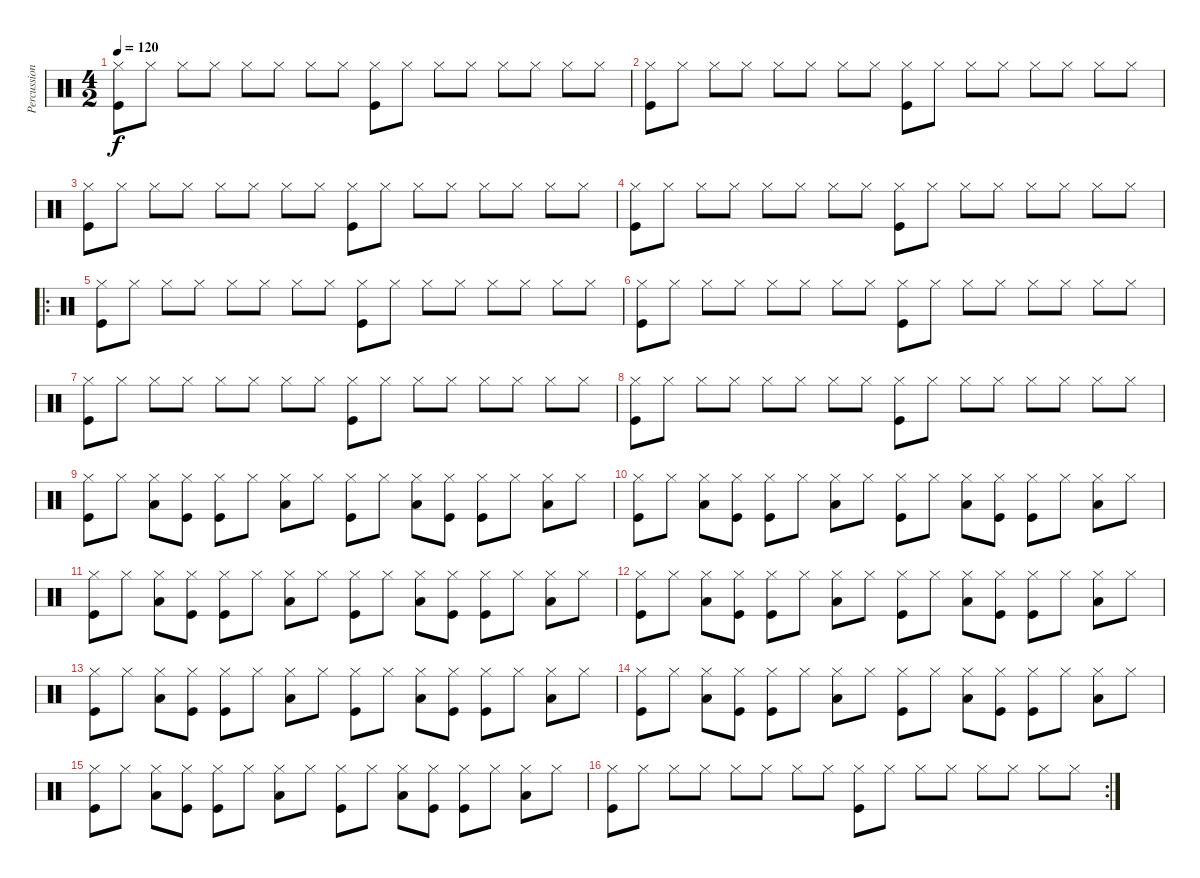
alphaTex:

\track ("Percussion" "Percussion") {instrument percussion}
\staff {score}
\articulation defaults
\ts (4 2)
\tempo 120
\clef neutral
\ks c
("Hi-Hat (closed)" "Kick (hit)").8{dy f} "Hi-Hat (closed)".8 "Hi-Hat (closed)".8 "Hi-Hat (closed)".8 "Hi-Hat (closed)".8 "Hi-Hat (closed)".8 "Hi-Hat (closed)".8 "Hi-Hat (closed)".8 ("Hi-Hat (closed)" "Kick (hit)").8 "Hi-Hat (closed)".8 "Hi-Hat (closed)".8 "Hi-Hat (closed)".8 "Hi-Hat (closed)".8 "Hi-Hat (closed)".8 "Hi-Hat (closed)".8 "Hi-Hat (closed)".8 |
("Hi-Hat (closed)" "Kick (hit)").8 "Hi-Hat (closed)".8 "Hi-Hat (closed)".8 "Hi-Hat (closed)".8 "Hi-Hat (closed)".8 "Hi-Hat (closed)".8 "Hi-Hat (closed)".8 "Hi-Hat (closed)".8 ("Hi-Hat (closed)" "Kick (hit)").8 "Hi-Hat (closed)".8 "Hi-Hat (closed)".8 "Hi-Hat (closed)".8 "Hi-Hat (closed)".8 "Hi-Hat (closed)".8 "Hi-Hat (closed)".8 "Hi-Hat (closed)".8 |
("Hi-Hat (closed)" "Kick (hit)").8 "Hi-Hat (closed)".8 "Hi-Hat (closed)".8 "Hi-Hat (closed)".8 "Hi-Hat (closed)".8 "Hi-Hat (closed)".8 "Hi-Hat (closed)".8 "Hi-Hat (closed)".8 ("Hi-Hat (closed)" "Kick (hit)").8 "Hi-Hat (closed)".8 "Hi-Hat (closed)".8 "Hi-Hat (closed)".8 "Hi-Hat (closed)".8 "Hi-Hat (closed)".8 "Hi-Hat (closed)".8 "Hi-Hat (closed)".8 |
("Hi-Hat (closed)" "Kick (hit)").8 "Hi-Hat (closed)".8 "Hi-Hat (closed)".8 "Hi-Hat (closed)".8 "Hi-Hat (closed)".8 "Hi-Hat (closed)".8 "Hi-Hat (closed)".8 "Hi-Hat (closed)".8 ("Hi-Hat (closed)" "Kick (hit)").8 "Hi-Hat (closed)".8 "Hi-Hat (closed)".8 "Hi-Hat (closed)".8 "Hi-Hat (closed)".8 "Hi-Hat (closed)".8 "Hi-Hat (closed)".8 "Hi-Hat (closed)".8 |
\ro
("Hi-Hat (closed)" "Kick (hit)").8 "Hi-Hat (closed)".8 "Hi-Hat (closed)".8 "Hi-Hat (closed)".8 "Hi-Hat (closed)".8 "Hi-Hat (closed)".8 "Hi-Hat (closed)".8 "Hi-Hat (closed)".8 ("Hi-Hat (closed)" "Kick (hit)").8 "Hi-Hat (closed)".8 "Hi-Hat (closed)".8 "Hi-Hat (closed)".8 "Hi-Hat (closed)".8 "Hi-Hat (closed)".8 "Hi-Hat (closed)".8 "Hi-Hat (closed)".8 |
("Hi-Hat (closed)" "Kick (hit)").8 "Hi-Hat (closed)".8 "Hi-Hat (closed)".8 "Hi-Hat (closed)".8 "Hi-Hat (closed)".8 "Hi-Hat (closed)".8 "Hi-Hat (closed)".8 "Hi-Hat (closed)".8 ("Hi-Hat (closed)" "Kick (hit)").8 "Hi-Hat (closed)".8 "Hi-Hat (closed)".8 "Hi-Hat (closed)".8 "Hi-Hat (closed)".8 "Hi-Hat (closed)".8 "Hi-Hat (closed)".8 "Hi-Hat (closed)".8 |
("Hi-Hat (closed)" "Kick (hit)").8 "Hi-Hat (closed)".8 "Hi-Hat (closed)".8 "Hi-Hat (closed)".8 "Hi-Hat (closed)".8 "Hi-Hat (closed)".8 "Hi-Hat (closed)".8 "Hi-Hat (closed)".8 ("Hi-Hat (closed)" "Kick (hit)").8 "Hi-Hat (closed)".8 "Hi-Hat (closed)".8 "Hi-Hat (closed)".8 "Hi-Hat (closed)".8 "Hi-Hat (closed)".8 "Hi-Hat (closed)".8 "Hi-Hat (closed)".8 |
("Hi-Hat (closed)" "Kick (hit)").8 "Hi-Hat (closed)".8 "Hi-Hat (closed)".8 "Hi-Hat (closed)".8 "Hi-Hat (closed)".8 "Hi-Hat (closed)".8 "Hi-Hat (closed)".8 "Hi-Hat (closed)".8 ("Hi-Hat (closed)" "Kick (hit)").8 "Hi-Hat (closed)".8 "Hi-Hat (closed)".8 "Hi-Hat (closed)".8 "Hi-Hat (closed)".8 "Hi-Hat (closed)".8 "Hi-Hat (closed)".8 "Hi-Hat (closed)".8 |
("Hi-Hat (closed)" "Kick (hit)").8 "Hi-Hat (closed)".8 ("Hi-Hat (closed)" "Low Floor Tom (hit)").8 ("Hi-Hat (closed)" "Kick (hit)").8 ("Hi-Hat (closed)" "Kick (hit)").8 "Hi-Hat (closed)".8 ("Hi-Hat (closed)" "Low Floor Tom (hit)").8 "Hi-Hat (closed)".8 ("Hi-Hat (closed)" "Kick (hit)").8 "Hi-Hat (closed)".8 ("Hi-Hat (closed)" "Low Floor Tom (hit)").8 ("Hi-Hat (closed)" "Kick (hit)").8 ("Hi-Hat (closed)" "Kick (hit)").8 "Hi-Hat (closed)".8 ("Hi-Hat (closed)" "Low Floor Tom (hit)").8 "Hi-Hat (closed)".8 |
("Hi-Hat (closed)" "Kick (hit)").8 "Hi-Hat (closed)".8 ("Hi-Hat (closed)" "Low Floor Tom (hit)").8 ("Hi-Hat (closed)" "Kick (hit)").8 ("Hi-Hat (closed)" "Kick (hit)").8 "Hi-Hat (closed)".8 ("Hi-Hat (closed)" "Low Floor Tom (hit)").8 "Hi-Hat (closed)".8 ("Hi-Hat (closed)" "Kick (hit)").8 "Hi-Hat (closed)".8 ("Hi-Hat (closed)" "Low Floor Tom (hit)").8 ("Hi-Hat (closed)" "Kick (hit)").8 ("Hi-Hat (closed)" "Kick (hit)").8 "Hi-Hat (closed)".8 ("Hi-Hat (closed)" "Low Floor Tom (hit)").8 "Hi-Hat (closed)".8 |
("Hi-Hat (closed)" "Kick (hit)").8 "Hi-Hat (closed)".8 ("Hi-Hat (closed)" "Low Floor Tom (hit)").8 ("Hi-Hat (closed)" "Kick (hit)").8 ("Hi-Hat (closed)" "Kick (hit)").8 "Hi-Hat (closed)".8 ("Hi-Hat (closed)" "Low Floor Tom (hit)").8 "Hi-Hat (closed)".8 ("Hi-Hat (closed)" "Kick (hit)").8 "Hi-Hat (closed)".8 ("Hi-Hat (closed)" "Low Floor Tom (hit)").8 ("Hi-Hat (closed)" "Kick (hit)").8 ("Hi-Hat (closed)" "Kick (hit)").8 "Hi-Hat (closed)".8 ("Hi-Hat (closed)" "Low Floor Tom (hit)").8 "Hi-Hat (closed)".8 |
("Hi-Hat (closed)" "Kick (hit)").8 "Hi-Hat (closed)".8 ("Hi-Hat (closed)" "Low Floor Tom (hit)").8 ("Hi-Hat (closed)" "Kick (hit)").8 ("Hi-Hat (closed)" "Kick (hit)").8 "Hi-Hat (closed)".8 ("Hi-Hat (closed)" "Low Floor Tom (hit)").8 "Hi-Hat (closed)".8 ("Hi-Hat (closed)" "Kick (hit)").8 "Hi-Hat (closed)".8 ("Hi-Hat (closed)" "Low Floor Tom (hit)").8 ("Hi-Hat (closed)" "Kick (hit)").8 ("Hi-Hat (closed)" "Kick (hit)").8 "Hi-Hat (closed)".8 ("Hi-Hat (closed)" "Low Floor Tom (hit)").8 "Hi-Hat (closed)".8 |
("Hi-Hat (closed)" "Kick (hit)").8 "Hi-Hat (closed)".8 ("Hi-Hat (closed)" "Low Floor Tom (hit)").8 ("Hi-Hat (closed)" "Kick (hit)").8 ("Hi-Hat (closed)" "Kick (hit)").8 "Hi-Hat (closed)".8 ("Hi-Hat (closed)" "Low Floor Tom (hit)").8 "Hi-Hat (closed)".8 ("Hi-Hat (closed)" "Kick (hit)").8 "Hi-Hat (closed)".8 ("Hi-Hat (closed)" "Low Floor Tom (hit)").8 ("Hi-Hat (closed)" "Kick (hit)").8 ("Hi-Hat (closed)" "Kick (hit)").8 "Hi-Hat (closed)".8 ("Hi-Hat (closed)" "Low Floor Tom (hit)").8 "Hi-Hat (closed)".8 |
("Hi-Hat (closed)" "Kick (hit)").8 "Hi-Hat (closed)".8 ("Hi-Hat (closed)" "Low Floor Tom (hit)").8 ("Hi-Hat (closed)" "Kick (hit)").8 ("Hi-Hat (closed)" "Kick (hit)").8 "Hi-Hat (closed)".8 ("Hi-Hat (closed)" "Low Floor Tom (hit)").8 "Hi-Hat (closed)".8 ("Hi-Hat (closed)" "Kick (hit)").8 "Hi-Hat (closed)".8 ("Hi-Hat (closed)" "Low Floor Tom (hit)").8 ("Hi-Hat (closed)" "Kick (hit)").8 ("Hi-Hat (closed)" "Kick (hit)").8 "Hi-Hat (closed)".8 ("Hi-Hat (closed)" "Low Floor Tom (hit)").8 "Hi-Hat (closed)".8 |
("Hi-Hat (closed)" "Kick (hit)").8 "Hi-Hat (closed)".8 ("Hi-Hat (closed)" "Low Floor Tom (hit)").8 ("Hi-Hat (closed)" "Kick (hit)").8 ("Hi-Hat (closed)" "Kick (hit)").8 "Hi-Hat (closed)".8 ("Hi-Hat (closed)" "Low Floor Tom (hit)").8 "Hi-Hat (closed)".8 ("Hi-Hat (closed)" "Kick (hit)").8 "Hi-Hat (closed)".8 ("Hi-Hat (closed)" "Low Floor Tom (hit)").8 ("Hi-Hat (closed)" "Kick (hit)").8 ("Hi-Hat (closed)" "Kick (hit)").8 "Hi-Hat (closed)".8 ("Hi-Hat (closed)" "Low Floor Tom (hit)").8 "Hi-Hat (closed)".8 |
\rc 2
("Hi-Hat (closed)" "Kick (hit)").8 "Hi-Hat (closed)".8 "Hi-Hat (closed)".8 "Hi-Hat (closed)".8 "Hi-Hat (closed)".8 "Hi-Hat (closed)".8 "Hi-Hat (closed)".8 "Hi-Hat (closed)".8 ("Hi-Hat (closed)" "Kick (hit)").8 "Hi-Hat (closed)".8 "Hi-Hat (closed)".8 "Hi-Hat (closed)".8 "Hi-Hat (closed)".8 "Hi-Hat (closed)".8 "Hi-Hat (closed)".8 "Hi-Hat (closed)".8
